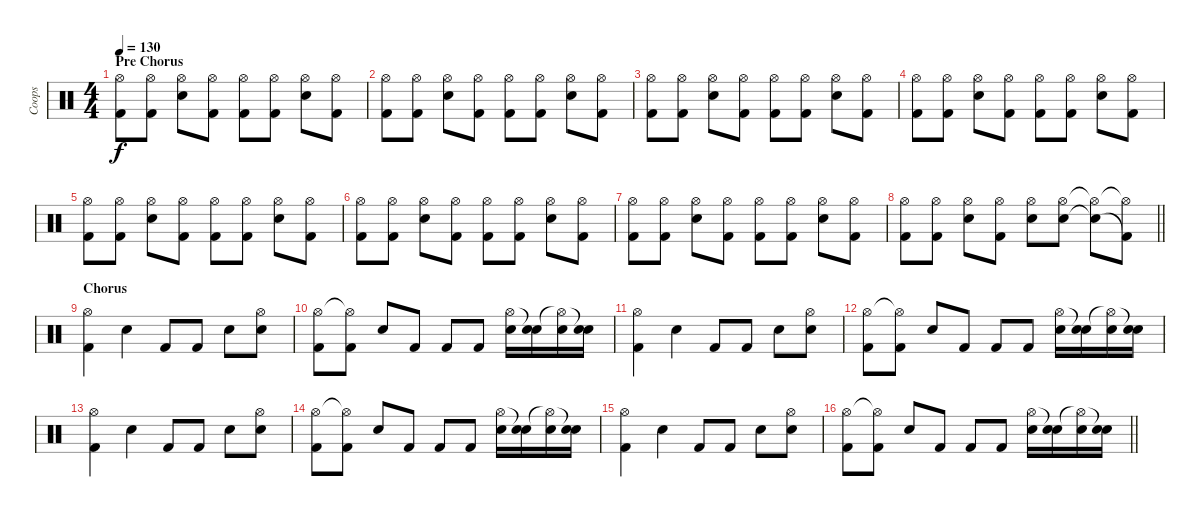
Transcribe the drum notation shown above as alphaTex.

\track ("Coops" "Coops") {instrument percussion}
\staff {score}
\articulation defaults
\ts (4 4)
\section ("" "Pre Chorus")
\tempo 130
\clef neutral
\ks c
("Hi-Hat (open)" "Kick (hit) 2").8{dy f} ("Hi-Hat (open)" "Kick (hit) 2").8 ("Hi-Hat (open)" "Snare (hit) 2").8 ("Hi-Hat (open)" "Kick (hit) 2").8 ("Hi-Hat (open)" "Kick (hit) 2").8 ("Hi-Hat (open)" "Kick (hit) 2").8 ("Hi-Hat (open)" "Snare (hit) 2").8 ("Hi-Hat (open)" "Kick (hit) 2").8 |
("Hi-Hat (open)" "Kick (hit) 2").8 ("Hi-Hat (open)" "Kick (hit) 2").8 ("Hi-Hat (open)" "Snare (hit) 2").8 ("Hi-Hat (open)" "Kick (hit) 2").8 ("Hi-Hat (open)" "Kick (hit) 2").8 ("Hi-Hat (open)" "Kick (hit) 2").8 ("Hi-Hat (open)" "Snare (hit) 2").8 ("Hi-Hat (open)" "Kick (hit) 2").8 |
("Hi-Hat (open)" "Kick (hit) 2").8 ("Hi-Hat (open)" "Kick (hit) 2").8 ("Hi-Hat (open)" "Snare (hit) 2").8 ("Hi-Hat (open)" "Kick (hit) 2").8 ("Hi-Hat (open)" "Kick (hit) 2").8 ("Hi-Hat (open)" "Kick (hit) 2").8 ("Hi-Hat (open)" "Snare (hit) 2").8 ("Hi-Hat (open)" "Kick (hit) 2").8 |
("Hi-Hat (open)" "Kick (hit) 2").8 ("Hi-Hat (open)" "Kick (hit) 2").8 ("Hi-Hat (open)" "Snare (hit) 2").8 ("Hi-Hat (open)" "Kick (hit) 2").8 ("Hi-Hat (open)" "Kick (hit) 2").8 ("Hi-Hat (open)" "Kick (hit) 2").8 ("Hi-Hat (open)" "Snare (hit) 2").8 ("Hi-Hat (open)" "Kick (hit) 2").8 |
("Hi-Hat (open)" "Kick (hit) 2").8 ("Hi-Hat (open)" "Kick (hit) 2").8 ("Hi-Hat (open)" "Snare (hit) 2").8 ("Hi-Hat (open)" "Kick (hit) 2").8 ("Hi-Hat (open)" "Kick (hit) 2").8 ("Hi-Hat (open)" "Kick (hit) 2").8 ("Hi-Hat (open)" "Snare (hit) 2").8 ("Hi-Hat (open)" "Kick (hit) 2").8 |
("Hi-Hat (open)" "Kick (hit) 2").8 ("Hi-Hat (open)" "Kick (hit) 2").8 ("Hi-Hat (open)" "Snare (hit) 2").8 ("Hi-Hat (open)" "Kick (hit) 2").8 ("Hi-Hat (open)" "Kick (hit) 2").8 ("Hi-Hat (open)" "Kick (hit) 2").8 ("Hi-Hat (open)" "Snare (hit) 2").8 ("Hi-Hat (open)" "Kick (hit) 2").8 |
("Hi-Hat (open)" "Kick (hit) 2").8 ("Hi-Hat (open)" "Kick (hit) 2").8 ("Hi-Hat (open)" "Snare (hit) 2").8 ("Hi-Hat (open)" "Kick (hit) 2").8 ("Hi-Hat (open)" "Kick (hit) 2").8 ("Hi-Hat (open)" "Kick (hit) 2").8 ("Hi-Hat (open)" "Snare (hit) 2").8 ("Hi-Hat (open)" "Kick (hit) 2").8 |
\barLineRight lightlight
("Hi-Hat (open)" "Kick (hit) 2").8 ("Hi-Hat (open)" "Kick (hit) 2").8 ("Hi-Hat (open)" "Snare (hit) 2").8 ("Hi-Hat (open)" "Kick (hit) 2").8 ("Hi-Hat (open)" "Snare (hit) 2").8 ("Hi-Hat (open)" "Snare (hit) 2").8 ("Hi-Hat (open)"{t} "Snare (hit) 2"{t}).8 ("Hi-Hat (open)"{t} "Kick (hit) 2"{t}).8 |
\section ("" "Chorus")
("Hi-Hat (open)" "Kick (hit) 2").4 "Snare (hit) 2".4 "Kick (hit) 2".8 "Kick (hit) 2".8 "Snare (hit) 2".8 ("Hi-Hat (open)" "Snare (hit) 2").8 |
("Hi-Hat (open)" "Kick (hit) 2").8 ("Hi-Hat (open)"{t} "Kick (hit) 2").8 "Snare (hit) 2".8 "Kick (hit) 2".8 "Kick (hit) 2".8 "Kick (hit) 2".8 ("Hi-Hat (open)" "Snare (hit) 2").16 ("Snare (hit)"{t} "Snare (hit) 2").16 ("Hi-Hat (open)"{t} "Snare (hit) 2").16 ("Snare (hit)"{t} "Snare (hit) 2").16 |
("Hi-Hat (open)" "Kick (hit) 2").4 "Snare (hit) 2".4 "Kick (hit) 2".8 "Kick (hit) 2".8 "Snare (hit) 2".8 ("Hi-Hat (open)" "Snare (hit) 2").8 |
("Hi-Hat (open)" "Kick (hit) 2").8 ("Hi-Hat (open)"{t} "Kick (hit) 2").8 "Snare (hit) 2".8 "Kick (hit) 2".8 "Kick (hit) 2".8 "Kick (hit) 2".8 ("Hi-Hat (open)" "Snare (hit) 2").16 ("Snare (hit)"{t} "Snare (hit) 2").16 ("Hi-Hat (open)"{t} "Snare (hit) 2").16 ("Snare (hit)"{t} "Snare (hit) 2").16 |
("Hi-Hat (open)" "Kick (hit) 2").4 "Snare (hit) 2".4 "Kick (hit) 2".8 "Kick (hit) 2".8 "Snare (hit) 2".8 ("Hi-Hat (open)" "Snare (hit) 2").8 |
("Hi-Hat (open)" "Kick (hit) 2").8 ("Hi-Hat (open)"{t} "Kick (hit) 2").8 "Snare (hit) 2".8 "Kick (hit) 2".8 "Kick (hit) 2".8 "Kick (hit) 2".8 ("Hi-Hat (open)" "Snare (hit) 2").16 ("Snare (hit)"{t} "Snare (hit) 2").16 ("Hi-Hat (open)"{t} "Snare (hit) 2").16 ("Snare (hit)"{t} "Snare (hit) 2").16 |
("Hi-Hat (open)" "Kick (hit) 2").4 "Snare (hit) 2".4 "Kick (hit) 2".8 "Kick (hit) 2".8 "Snare (hit) 2".8 ("Hi-Hat (open)" "Snare (hit) 2").8 |
\barLineRight lightlight
("Hi-Hat (open)" "Kick (hit) 2").8 ("Hi-Hat (open)"{t} "Kick (hit) 2").8 "Snare (hit) 2".8 "Kick (hit) 2".8 "Kick (hit) 2".8 "Kick (hit) 2".8 ("Hi-Hat (open)" "Snare (hit) 2").16 ("Snare (hit)"{t} "Snare (hit) 2").16 ("Hi-Hat (open)"{t} "Snare (hit) 2").16 ("Snare (hit)"{t} "Snare (hit) 2").16
